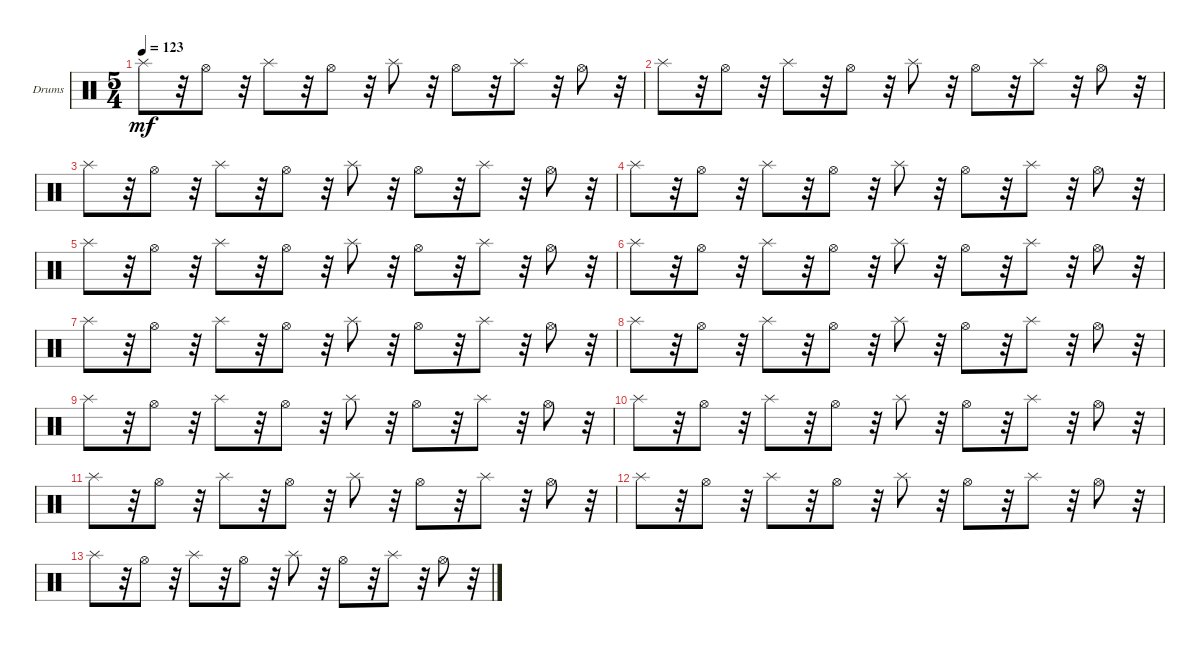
\defaultSystemsLayout 4
\bracketExtendMode groupsimilarinstruments
\firstSystemTrackNameOrientation horizontal
\otherSystemsTrackNameOrientation horizontal
\track ("Drumkit" "Drums") {instrument percussion}
\staff {score}
\articulation defaults
\ts (5 4)
\tempo 123
\clef neutral
\ks c "Splash (hit)".8{dy mf}
r.32 "Hi-Hat (open)".8 r.32 "Splash (hit)".8 r.32 "Hi-Hat (open)".8 r.32 "Splash (hit)".8 r.32 "Hi-Hat (open)".8 r.32 "Splash (hit)".8 r.32 "Hi-Hat (open)".8 r.32 |
"Splash (hit)".8 r.32 "Hi-Hat (open)".8 r.32 "Splash (hit)".8 r.32 "Hi-Hat (open)".8 r.32 "Splash (hit)".8 r.32 "Hi-Hat (open)".8 r.32 "Splash (hit)".8 r.32 "Hi-Hat (open)".8 r.32 |
"Splash (hit)".8 r.32 "Hi-Hat (open)".8 r.32 "Splash (hit)".8 r.32 "Hi-Hat (open)".8 r.32 "Splash (hit)".8 r.32 "Hi-Hat (open)".8 r.32 "Splash (hit)".8 r.32 "Hi-Hat (open)".8 r.32 |
"Splash (hit)".8 r.32 "Hi-Hat (open)".8 r.32 "Splash (hit)".8 r.32 "Hi-Hat (open)".8 r.32 "Splash (hit)".8 r.32 "Hi-Hat (open)".8 r.32 "Splash (hit)".8 r.32 "Hi-Hat (open)".8 r.32 |
"Splash (hit)".8 r.32 "Hi-Hat (open)".8 r.32 "Splash (hit)".8 r.32 "Hi-Hat (open)".8 r.32 "Splash (hit)".8 r.32 "Hi-Hat (open)".8 r.32 "Splash (hit)".8 r.32 "Hi-Hat (open)".8 r.32 |
"Splash (hit)".8 r.32 "Hi-Hat (open)".8 r.32 "Splash (hit)".8 r.32 "Hi-Hat (open)".8 r.32 "Splash (hit)".8 r.32 "Hi-Hat (open)".8 r.32 "Splash (hit)".8 r.32 "Hi-Hat (open)".8 r.32 |
"Splash (hit)".8 r.32 "Hi-Hat (open)".8 r.32 "Splash (hit)".8 r.32 "Hi-Hat (open)".8 r.32 "Splash (hit)".8 r.32 "Hi-Hat (open)".8 r.32 "Splash (hit)".8 r.32 "Hi-Hat (open)".8 r.32 |
"Splash (hit)".8 r.32 "Hi-Hat (open)".8 r.32 "Splash (hit)".8 r.32 "Hi-Hat (open)".8 r.32 "Splash (hit)".8 r.32 "Hi-Hat (open)".8 r.32 "Splash (hit)".8 r.32 "Hi-Hat (open)".8 r.32 |
"Splash (hit)".8 r.32 "Hi-Hat (open)".8 r.32 "Splash (hit)".8 r.32 "Hi-Hat (open)".8 r.32 "Splash (hit)".8 r.32 "Hi-Hat (open)".8 r.32 "Splash (hit)".8 r.32 "Hi-Hat (open)".8 r.32 |
"Splash (hit)".8 r.32 "Hi-Hat (open)".8 r.32 "Splash (hit)".8 r.32 "Hi-Hat (open)".8 r.32 "Splash (hit)".8 r.32 "Hi-Hat (open)".8 r.32 "Splash (hit)".8 r.32 "Hi-Hat (open)".8 r.32 |
"Splash (hit)".8 r.32 "Hi-Hat (open)".8 r.32 "Splash (hit)".8 r.32 "Hi-Hat (open)".8 r.32 "Splash (hit)".8 r.32 "Hi-Hat (open)".8 r.32 "Splash (hit)".8 r.32 "Hi-Hat (open)".8 r.32 |
"Splash (hit)".8 r.32 "Hi-Hat (open)".8 r.32 "Splash (hit)".8 r.32 "Hi-Hat (open)".8 r.32 "Splash (hit)".8 r.32 "Hi-Hat (open)".8 r.32 "Splash (hit)".8 r.32 "Hi-Hat (open)".8 r.32 |
"Splash (hit)".8 r.32 "Hi-Hat (open)".8 r.32 "Splash (hit)".8 r.32 "Hi-Hat (open)".8 r.32 "Splash (hit)".8 r.32 "Hi-Hat (open)".8 r.32 "Splash (hit)".8 r.32 "Hi-Hat (open)".8 r.32
